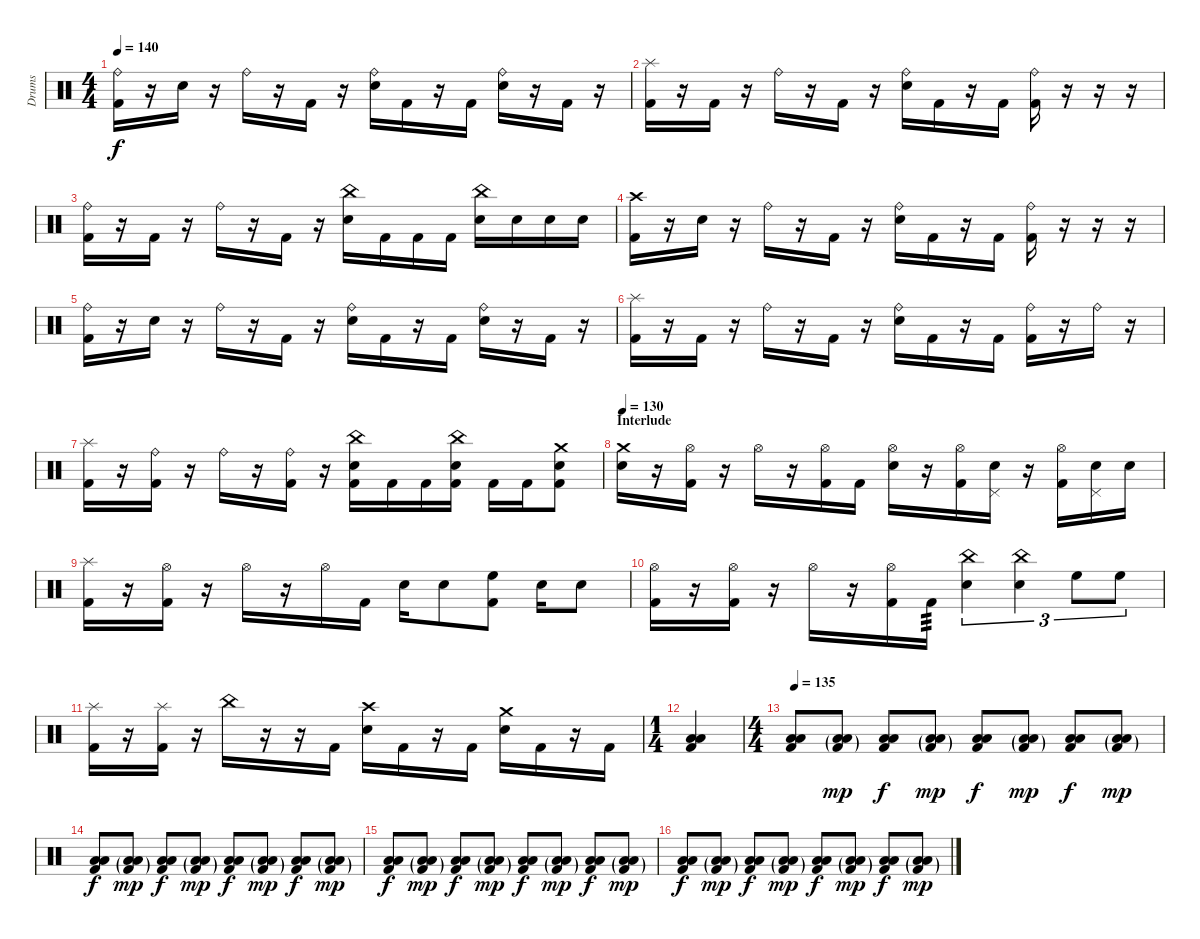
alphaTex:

\track ("Drums" "Drums") {instrument percussion}
\staff {score}
\articulation defaults
\ts (4 4)
\tempo 140
\clef neutral
\ks c
("Ride (bell)" "Kick (hit) 2").16{dy f} r.16 "Electric Snare (hit)".16 r.16 "Ride (bell)".16 r.16 "Kick (hit) 2".16 r.16 ("Ride (bell)" "Electric Snare (hit)").16 "Kick (hit) 2".16 r.16 "Kick (hit) 2".16 ("Ride (bell)" "Electric Snare (hit)").16 r.16 "Kick (hit) 2".16 r.16 |
("Splash (hit)" "Kick (hit) 2").16 r.16 "Kick (hit) 2".16 r.16 "Ride (bell)".16 r.16 "Kick (hit) 2".16 r.16 ("Ride (bell)" "Electric Snare (hit)").16 "Kick (hit) 2".16 r.16 "Kick (hit) 2".16 ("Ride (bell)" "Kick (hit) 2").16 r.16 r.16 r.16 |
("Ride (bell)" "Kick (hit) 2").16 r.16 "Kick (hit) 2".16 r.16 "Ride (bell)".16 r.16 "Kick (hit) 2".16 r.16 ("China (hit)" "Electric Snare (hit)").16 "Kick (hit) 2".16 "Kick (hit) 2".16 "Kick (hit) 2".16 ("China (hit)" "Electric Snare (hit)").16 "Electric Snare (hit)".16 "Electric Snare (hit)".16 "Electric Snare (hit)".16 |
("Crash high (hit)" "Kick (hit) 2").16 r.16 "Electric Snare (hit)".16 r.16 "Ride (bell)".16 r.16 "Kick (hit) 2".16 r.16 ("Ride (bell)" "Electric Snare (hit)").16 "Kick (hit) 2".16 r.16 "Kick (hit) 2".16 ("Ride (bell)" "Kick (hit) 2").16 r.16 r.16 r.16 |
("Ride (bell)" "Kick (hit) 2").16 r.16 "Electric Snare (hit)".16 r.16 "Ride (bell)".16 r.16 "Kick (hit) 2".16 r.16 ("Ride (bell)" "Electric Snare (hit)").16 "Kick (hit) 2".16 r.16 "Kick (hit) 2".16 ("Ride (bell)" "Electric Snare (hit)").16 r.16 "Kick (hit) 2".16 r.16 |
("Splash (hit)" "Kick (hit) 2").16 r.16 "Kick (hit) 2".16 r.16 "Ride (bell)".16 r.16 "Kick (hit) 2".16 r.16 ("Ride (bell)" "Electric Snare (hit)").16 "Kick (hit) 2".16 r.16 "Kick (hit) 2".16 ("Ride (bell)" "Kick (hit) 2").16 r.16 "Ride (bell)".16 r.16 |
("Splash (hit)" "Kick (hit) 2").16 r.16 ("Ride (bell)" "Kick (hit) 2").16 r.16 "Ride (bell)".16 r.16 ("Ride (bell)" "Kick (hit) 2").16 r.16 ("China (hit)" "Electric Snare (hit)" "Kick (hit) 2").16 "Kick (hit) 2".16 "Kick (hit) 2".16 ("China (hit)" "Electric Snare (hit)" "Kick (hit) 2").16 "Kick (hit) 2".16 "Kick (hit) 2".16 ("Crash medium (hit)" "Electric Snare (hit)" "Kick (hit) 2").8 |
\section ("" "Interlude")
\tempo 130
("Crash medium (hit)" "Electric Snare (hit)").16 r.16 ("Hi-Hat (open)" "Kick (hit) 2").16 r.16 "Hi-Hat (open)".16 r.16 ("Hi-Hat (open)" "Kick (hit) 2").16 "Kick (hit) 2".16 ("Hi-Hat (open)" "Electric Snare (hit)").16 r.16 ("Hi-Hat (open)" "Kick (hit) 2").16 ("Pedal Hi-Hat (hit)" "Electric Snare (hit)").16 r.16 ("Hi-Hat (open)" "Kick (hit) 2").16 ("Pedal Hi-Hat (hit)" "Electric Snare (hit)").16 "Electric Snare (hit)".16 |
("Splash (hit)" "Kick (hit) 2").16 r.16 ("Hi-Hat (open)" "Kick (hit) 2").16 r.16 "Hi-Hat (open)".16 r.16 "Hi-Hat (open)".16 "Kick (hit) 2".16 "Electric Snare (hit)".16 "Electric Snare (hit)".8 ("High Floor Tom (hit)" "Kick (hit) 2").8 "Electric Snare (hit)".16 "Electric Snare (hit)".8 |
("Hi-Hat (open)" "Kick (hit) 2").16 r.16 ("Hi-Hat (open)" "Kick (hit) 2").16 r.16 "Hi-Hat (open)".16 r.16 ("Hi-Hat (open)" "Kick (hit) 2").16 "Kick (hit) 2".16{tp 3} ("China (hit)" "Electric Snare (hit)").4{tu (3 2)} ("China (hit)" "Electric Snare (hit)").4{tu (3 2)} "High Floor Tom (hit)".8{tu (3 2)} "High Floor Tom (hit)".8{tu (3 2)} |
("Splash (hit)" "Kick (hit) 2").16 r.16 ("Splash (hit)" "Kick (hit) 2").16 r.16 "China (hit)".16 r.16 r.16 "Kick (hit) 2".16 ("Crash high (hit)" "Electric Snare (hit)").16 "Kick (hit) 2".16 r.16 "Kick (hit) 2".16 ("Crash medium (hit)" "Electric Snare (hit)").16 "Kick (hit) 2".16 r.16 "Kick (hit) 2".16 |
\ts (1 4)
("Low Tom (hit)" "Low Floor Tom (hit)" "Kick (hit) 2").4 |
\ts (4 4)
\tempo 135
("Low Tom (hit)" "Low Floor Tom (hit)" "Kick (hit) 2").8{volume 14} ("Low Tom (hit)"{g} "Low Floor Tom (hit)"{g} "Kick (hit) 2"{g}).8{dy mp} ("Low Tom (hit)" "Low Floor Tom (hit)" "Kick (hit) 2").8{dy f} ("Low Tom (hit)"{g} "Low Floor Tom (hit)"{g} "Kick (hit) 2"{g}).8{dy mp} ("Low Tom (hit)" "Low Floor Tom (hit)" "Kick (hit) 2").8{dy f} ("Low Tom (hit)"{g} "Low Floor Tom (hit)"{g} "Kick (hit) 2"{g}).8{dy mp} ("Low Tom (hit)" "Low Floor Tom (hit)" "Kick (hit) 2").8{dy f} ("Low Tom (hit)"{g} "Low Floor Tom (hit)"{g} "Kick (hit) 2"{g}).8{dy mp} |
("Low Tom (hit)" "Low Floor Tom (hit)" "Kick (hit) 2").8{dy f} ("Low Tom (hit)"{g} "Low Floor Tom (hit)"{g} "Kick (hit) 2"{g}).8{dy mp} ("Low Tom (hit)" "Low Floor Tom (hit)" "Kick (hit) 2").8{dy f} ("Low Tom (hit)"{g} "Low Floor Tom (hit)"{g} "Kick (hit) 2"{g}).8{dy mp} ("Low Tom (hit)" "Low Floor Tom (hit)" "Kick (hit) 2").8{dy f} ("Low Tom (hit)"{g} "Low Floor Tom (hit)"{g} "Kick (hit) 2"{g}).8{dy mp} ("Low Tom (hit)" "Low Floor Tom (hit)" "Kick (hit) 2").8{dy f} ("Low Tom (hit)"{g} "Low Floor Tom (hit)"{g} "Kick (hit) 2"{g}).8{dy mp} |
("Low Tom (hit)" "Low Floor Tom (hit)" "Kick (hit) 2").8{dy f} ("Low Tom (hit)"{g} "Low Floor Tom (hit)"{g} "Kick (hit) 2"{g}).8{dy mp} ("Low Tom (hit)" "Low Floor Tom (hit)" "Kick (hit) 2").8{dy f} ("Low Tom (hit)"{g} "Low Floor Tom (hit)"{g} "Kick (hit) 2"{g}).8{dy mp} ("Low Tom (hit)" "Low Floor Tom (hit)" "Kick (hit) 2").8{dy f} ("Low Tom (hit)"{g} "Low Floor Tom (hit)"{g} "Kick (hit) 2"{g}).8{dy mp} ("Low Tom (hit)" "Low Floor Tom (hit)" "Kick (hit) 2").8{dy f} ("Low Tom (hit)"{g} "Low Floor Tom (hit)"{g} "Kick (hit) 2"{g}).8{dy mp} |
("Low Tom (hit)" "Low Floor Tom (hit)" "Kick (hit) 2").8{dy f} ("Low Tom (hit)"{g} "Low Floor Tom (hit)"{g} "Kick (hit) 2"{g}).8{dy mp} ("Low Tom (hit)" "Low Floor Tom (hit)" "Kick (hit) 2").8{dy f} ("Low Tom (hit)"{g} "Low Floor Tom (hit)"{g} "Kick (hit) 2"{g}).8{dy mp} ("Low Tom (hit)" "Low Floor Tom (hit)" "Kick (hit) 2").8{dy f} ("Low Tom (hit)"{g} "Low Floor Tom (hit)"{g} "Kick (hit) 2"{g}).8{dy mp} ("Low Tom (hit)" "Low Floor Tom (hit)" "Kick (hit) 2").8{dy f} ("Low Tom (hit)"{g} "Low Floor Tom (hit)"{g} "Kick (hit) 2"{g}).8{dy mp}
